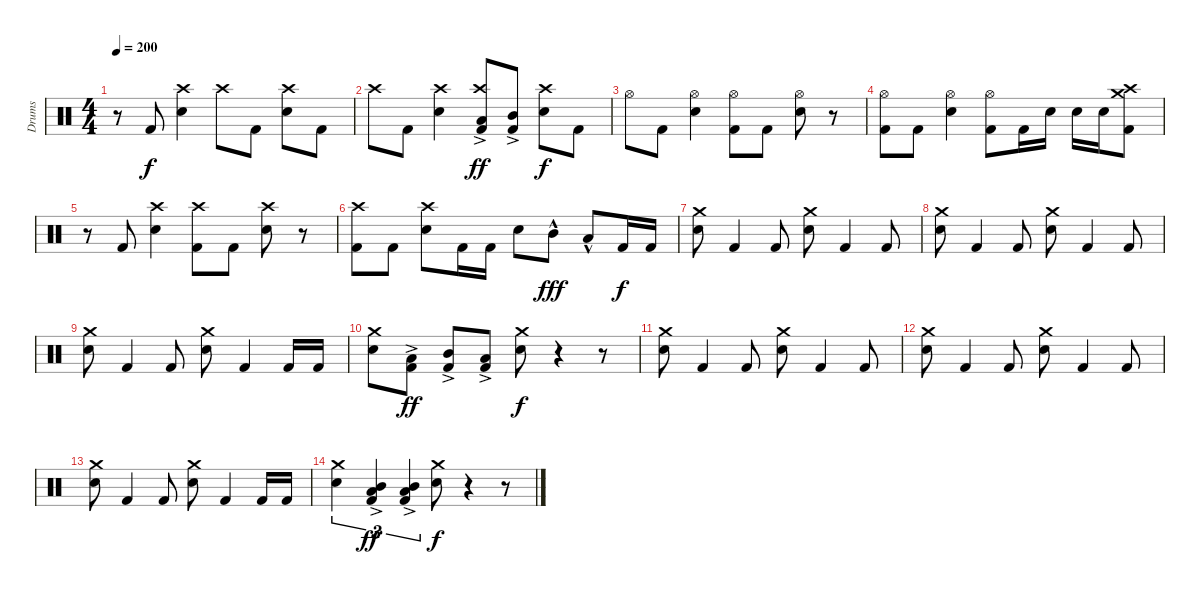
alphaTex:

\track ("Drums" "Drums") {instrument percussion}
\staff {score}
\articulation defaults
\ts (4 4)
\tempo 200
\clef neutral
\ks c
r.8{dy f} "Kick (hit) 2".8 ("Crash high (hit)" "Electric Snare (hit)").4 "Crash high (hit)".8 "Kick (hit) 2".8 ("Crash high (hit)" "Electric Snare (hit)").8 "Kick (hit) 2".8 |
"Crash high (hit)".8 "Kick (hit) 2".8 ("Crash high (hit)" "Electric Snare (hit)").4 ("Crash high (hit)" "Low Tom (hit)"{ac} "Kick (hit) 2").8{dy ff} ("Mid Tom (hit)"{ac} "Kick (hit) 2").8 ("Crash high (hit)" "Electric Snare (hit)").8{dy f} "Kick (hit) 2".8 |
"Hi-Hat (open)".8 "Kick (hit) 2".8 ("Hi-Hat (open)" "Electric Snare (hit)").4 ("Hi-Hat (open)" "Kick (hit) 2").8 "Kick (hit) 2".8 ("Hi-Hat (open)" "Electric Snare (hit)").8 r.8 |
("Hi-Hat (open)" "Kick (hit) 2").8 "Kick (hit) 2".8 ("Hi-Hat (open)" "Electric Snare (hit)").4 ("Hi-Hat (open)" "Kick (hit) 2").8 "Kick (hit) 2".16 "Electric Snare (hit)".16 "Electric Snare (hit)".16 "Electric Snare (hit)".16 ("Crash medium (hit)" "Crash high (hit)" "Kick (hit) 2").8 |
r.8 "Kick (hit) 2".8 ("Crash high (hit)" "Electric Snare (hit)").4 ("Crash high (hit)" "Kick (hit) 2").8 "Kick (hit) 2".8 ("Crash high (hit)" "Electric Snare (hit)").8 r.8 |
("Crash high (hit)" "Kick (hit) 2").8 "Kick (hit) 2".8 ("Crash high (hit)" "Electric Snare (hit)").8 "Kick (hit) 2".16 "Kick (hit) 2".16 "Electric Snare (hit)".8 "Mid Tom (hit)"{hac}.8{dy fff} "Low Tom (hit)"{hac}.8 "Kick (hit) 2".16{dy f} "Kick (hit) 2".16 |
("Crash medium (hit)" "Electric Snare (hit)").8 "Kick (hit) 2".4 "Kick (hit) 2".8 ("Crash medium (hit)" "Electric Snare (hit)").8 "Kick (hit) 2".4 "Kick (hit) 2".8 |
("Crash medium (hit)" "Electric Snare (hit)").8 "Kick (hit) 2".4 "Kick (hit) 2".8 ("Crash medium (hit)" "Electric Snare (hit)").8 "Kick (hit) 2".4 "Kick (hit) 2".8 |
("Crash medium (hit)" "Electric Snare (hit)").8 "Kick (hit) 2".4 "Kick (hit) 2".8 ("Crash medium (hit)" "Electric Snare (hit)").8 "Kick (hit) 2".4 "Kick (hit) 2".16 "Kick (hit) 2".16 |
("Crash medium (hit)" "Electric Snare (hit)").8 ("Low Tom (hit)"{ac} "Kick (hit) 2").8{dy ff} ("Mid Tom (hit)"{ac} "Kick (hit) 2").8 ("Low Tom (hit)"{ac} "Kick (hit) 2").8 ("Crash medium (hit)" "Electric Snare (hit)").8{dy f} r.4 r.8 |
("Crash medium (hit)" "Electric Snare (hit)").8 "Kick (hit) 2".4 "Kick (hit) 2".8 ("Crash medium (hit)" "Electric Snare (hit)").8 "Kick (hit) 2".4 "Kick (hit) 2".8 |
("Crash medium (hit)" "Electric Snare (hit)").8 "Kick (hit) 2".4 "Kick (hit) 2".8 ("Crash medium (hit)" "Electric Snare (hit)").8 "Kick (hit) 2".4 "Kick (hit) 2".8 |
("Crash medium (hit)" "Electric Snare (hit)").8 "Kick (hit) 2".4 "Kick (hit) 2".8 ("Crash medium (hit)" "Electric Snare (hit)").8 "Kick (hit) 2".4 "Kick (hit) 2".16 "Kick (hit) 2".16 |
("Crash medium (hit)" "Electric Snare (hit)").4{tu (3 2)} ("Mid Tom (hit)"{ac} "Low Tom (hit)"{ac} "Kick (hit) 2").4{tu (3 2) dy ff} ("Mid Tom (hit)"{ac} "Low Tom (hit)"{ac} "Kick (hit) 2").4{tu (3 2)} ("Crash medium (hit)" "Electric Snare (hit)").8{dy f} r.4 r.8
